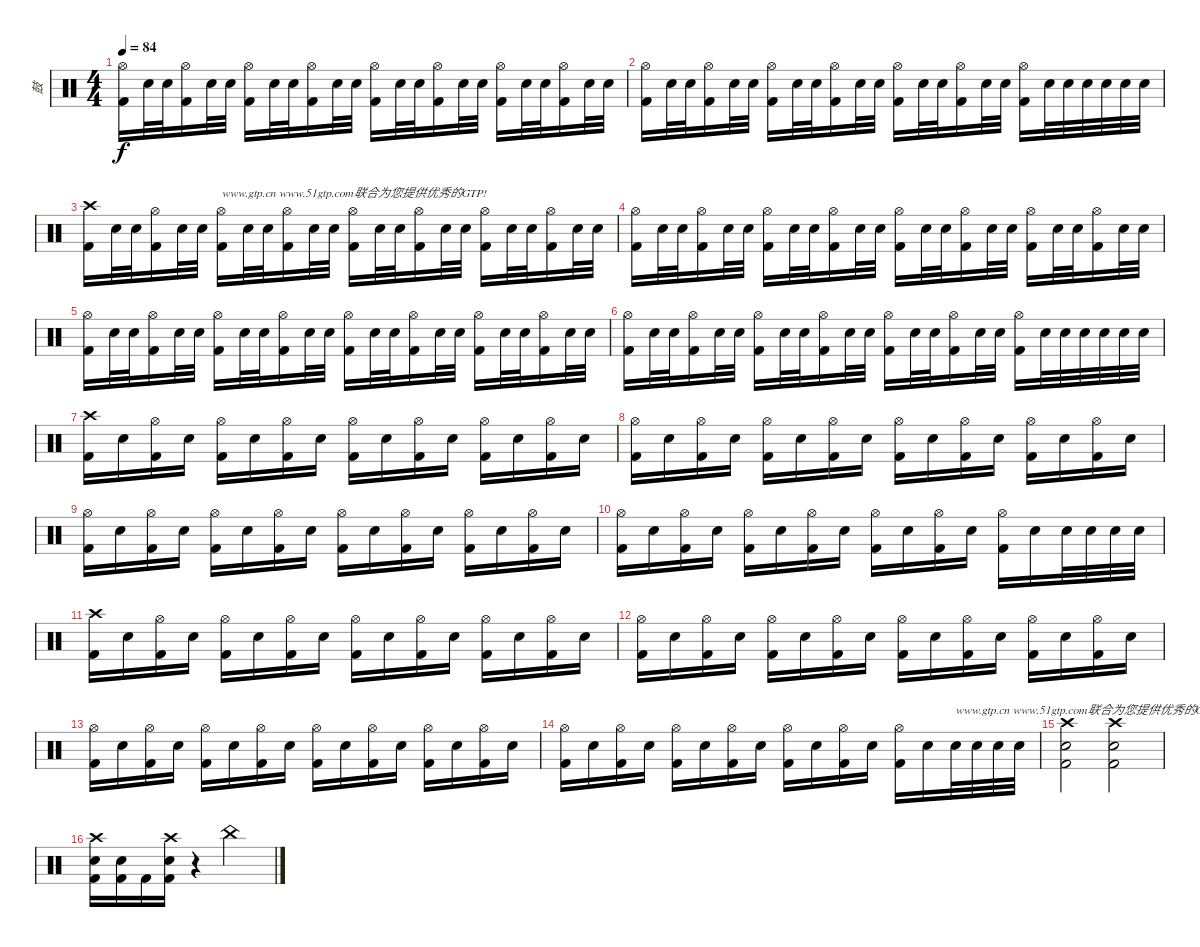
\track ("鼓" "鼓") {instrument percussion}
\staff {score}
\articulation defaults
\ts (4 4)
\tempo 84
\clef neutral
\ks c
("Hi-Hat (open)" "Kick (hit) 2").16{dy f} "Electric Snare (hit)".32 "Electric Snare (hit)".32 ("Hi-Hat (open)" "Kick (hit) 2").16 "Electric Snare (hit)".32 "Electric Snare (hit)".32 ("Hi-Hat (open)" "Kick (hit) 2").16 "Electric Snare (hit)".32 "Electric Snare (hit)".32 ("Hi-Hat (open)" "Kick (hit) 2").16 "Electric Snare (hit)".32 "Electric Snare (hit)".32 ("Hi-Hat (open)" "Kick (hit) 2").16 "Electric Snare (hit)".32 "Electric Snare (hit)".32 ("Hi-Hat (open)" "Kick (hit) 2").16 "Electric Snare (hit)".32 "Electric Snare (hit)".32 ("Hi-Hat (open)" "Kick (hit) 2").16 "Electric Snare (hit)".32 "Electric Snare (hit)".32 ("Hi-Hat (open)" "Kick (hit) 2").16 "Electric Snare (hit)".32 "Electric Snare (hit)".32 |
("Hi-Hat (open)" "Kick (hit) 2").16 "Electric Snare (hit)".32 "Electric Snare (hit)".32 ("Hi-Hat (open)" "Kick (hit) 2").16 "Electric Snare (hit)".32 "Electric Snare (hit)".32 ("Hi-Hat (open)" "Kick (hit) 2").16 "Electric Snare (hit)".32 "Electric Snare (hit)".32 ("Hi-Hat (open)" "Kick (hit) 2").16 "Electric Snare (hit)".32 "Electric Snare (hit)".32 ("Hi-Hat (open)" "Kick (hit) 2").16 "Electric Snare (hit)".32 "Electric Snare (hit)".32 ("Hi-Hat (open)" "Kick (hit) 2").16 "Electric Snare (hit)".32 "Electric Snare (hit)".32 ("Hi-Hat (open)" "Kick (hit) 2").16 "Electric Snare (hit)".32 "Electric Snare (hit)".32 "Electric Snare (hit)".32 "Electric Snare (hit)".32 "Electric Snare (hit)".32 "Electric Snare (hit)".32 |
("Crash high (hit)" "Kick (hit) 2").16 "Electric Snare (hit)".32 "Electric Snare (hit)".32 ("Hi-Hat (open)" "Kick (hit) 2").16 "Electric Snare (hit)".32 "Electric Snare (hit)".32 ("Hi-Hat (open)" "Kick (hit) 2").16{txt "www.gtp.cn www.51gtp.com联合为您提供优秀的GTP!"} "Electric Snare (hit)".32 "Electric Snare (hit)".32 ("Hi-Hat (open)" "Kick (hit) 2").16 "Electric Snare (hit)".32 "Electric Snare (hit)".32 ("Hi-Hat (open)" "Kick (hit) 2").16 "Electric Snare (hit)".32 "Electric Snare (hit)".32 ("Hi-Hat (open)" "Kick (hit) 2").16 "Electric Snare (hit)".32 "Electric Snare (hit)".32 ("Hi-Hat (open)" "Kick (hit) 2").16 "Electric Snare (hit)".32 "Electric Snare (hit)".32 ("Hi-Hat (open)" "Kick (hit) 2").16 "Electric Snare (hit)".32 "Electric Snare (hit)".32 |
("Hi-Hat (open)" "Kick (hit) 2").16 "Electric Snare (hit)".32 "Electric Snare (hit)".32 ("Hi-Hat (open)" "Kick (hit) 2").16 "Electric Snare (hit)".32 "Electric Snare (hit)".32 ("Hi-Hat (open)" "Kick (hit) 2").16 "Electric Snare (hit)".32 "Electric Snare (hit)".32 ("Hi-Hat (open)" "Kick (hit) 2").16 "Electric Snare (hit)".32 "Electric Snare (hit)".32 ("Hi-Hat (open)" "Kick (hit) 2").16 "Electric Snare (hit)".32 "Electric Snare (hit)".32 ("Hi-Hat (open)" "Kick (hit) 2").16 "Electric Snare (hit)".32 "Electric Snare (hit)".32 ("Hi-Hat (open)" "Kick (hit) 2").16 "Electric Snare (hit)".32 "Electric Snare (hit)".32 ("Hi-Hat (open)" "Kick (hit) 2").16 "Electric Snare (hit)".32 "Electric Snare (hit)".32 |
("Hi-Hat (open)" "Kick (hit) 2").16 "Electric Snare (hit)".32 "Electric Snare (hit)".32 ("Hi-Hat (open)" "Kick (hit) 2").16 "Electric Snare (hit)".32 "Electric Snare (hit)".32 ("Hi-Hat (open)" "Kick (hit) 2").16 "Electric Snare (hit)".32 "Electric Snare (hit)".32 ("Hi-Hat (open)" "Kick (hit) 2").16 "Electric Snare (hit)".32 "Electric Snare (hit)".32 ("Hi-Hat (open)" "Kick (hit) 2").16 "Electric Snare (hit)".32 "Electric Snare (hit)".32 ("Hi-Hat (open)" "Kick (hit) 2").16 "Electric Snare (hit)".32 "Electric Snare (hit)".32 ("Hi-Hat (open)" "Kick (hit) 2").16 "Electric Snare (hit)".32 "Electric Snare (hit)".32 ("Hi-Hat (open)" "Kick (hit) 2").16 "Electric Snare (hit)".32 "Electric Snare (hit)".32 |
("Hi-Hat (open)" "Kick (hit) 2").16 "Electric Snare (hit)".32 "Electric Snare (hit)".32 ("Hi-Hat (open)" "Kick (hit) 2").16 "Electric Snare (hit)".32 "Electric Snare (hit)".32 ("Hi-Hat (open)" "Kick (hit) 2").16 "Electric Snare (hit)".32 "Electric Snare (hit)".32 ("Hi-Hat (open)" "Kick (hit) 2").16 "Electric Snare (hit)".32 "Electric Snare (hit)".32 ("Hi-Hat (open)" "Kick (hit) 2").16 "Electric Snare (hit)".32 "Electric Snare (hit)".32 ("Hi-Hat (open)" "Kick (hit) 2").16 "Electric Snare (hit)".32 "Electric Snare (hit)".32 ("Hi-Hat (open)" "Kick (hit) 2").16 "Electric Snare (hit)".32 "Electric Snare (hit)".32 "Electric Snare (hit)".32 "Electric Snare (hit)".32 "Electric Snare (hit)".32 "Electric Snare (hit)".32 |
("Crash high (hit)" "Kick (hit) 2").16 "Electric Snare (hit)".16 ("Hi-Hat (open)" "Kick (hit) 2").16 "Electric Snare (hit)".16 ("Hi-Hat (open)" "Kick (hit) 2").16 "Electric Snare (hit)".16 ("Hi-Hat (open)" "Kick (hit) 2").16 "Electric Snare (hit)".16 ("Hi-Hat (open)" "Kick (hit) 2").16 "Electric Snare (hit)".16 ("Hi-Hat (open)" "Kick (hit) 2").16 "Electric Snare (hit)".16 ("Hi-Hat (open)" "Kick (hit) 2").16 "Electric Snare (hit)".16 ("Hi-Hat (open)" "Kick (hit) 2").16 "Electric Snare (hit)".16 |
("Hi-Hat (open)" "Kick (hit) 2").16 "Electric Snare (hit)".16 ("Hi-Hat (open)" "Kick (hit) 2").16 "Electric Snare (hit)".16 ("Hi-Hat (open)" "Kick (hit) 2").16 "Electric Snare (hit)".16 ("Hi-Hat (open)" "Kick (hit) 2").16 "Electric Snare (hit)".16 ("Hi-Hat (open)" "Kick (hit) 2").16 "Electric Snare (hit)".16 ("Hi-Hat (open)" "Kick (hit) 2").16 "Electric Snare (hit)".16 ("Hi-Hat (open)" "Kick (hit) 2").16 "Electric Snare (hit)".16 ("Hi-Hat (open)" "Kick (hit) 2").16 "Electric Snare (hit)".16 |
("Hi-Hat (open)" "Kick (hit) 2").16 "Electric Snare (hit)".16 ("Hi-Hat (open)" "Kick (hit) 2").16 "Electric Snare (hit)".16 ("Hi-Hat (open)" "Kick (hit) 2").16 "Electric Snare (hit)".16 ("Hi-Hat (open)" "Kick (hit) 2").16 "Electric Snare (hit)".16 ("Hi-Hat (open)" "Kick (hit) 2").16 "Electric Snare (hit)".16 ("Hi-Hat (open)" "Kick (hit) 2").16 "Electric Snare (hit)".16 ("Hi-Hat (open)" "Kick (hit) 2").16 "Electric Snare (hit)".16 ("Hi-Hat (open)" "Kick (hit) 2").16 "Electric Snare (hit)".16 |
("Hi-Hat (open)" "Kick (hit) 2").16 "Electric Snare (hit)".16 ("Hi-Hat (open)" "Kick (hit) 2").16 "Electric Snare (hit)".16 ("Hi-Hat (open)" "Kick (hit) 2").16 "Electric Snare (hit)".16 ("Hi-Hat (open)" "Kick (hit) 2").16 "Electric Snare (hit)".16 ("Hi-Hat (open)" "Kick (hit) 2").16 "Electric Snare (hit)".16 ("Hi-Hat (open)" "Kick (hit) 2").16 "Electric Snare (hit)".16 ("Hi-Hat (open)" "Kick (hit) 2").16 "Electric Snare (hit)".16 "Electric Snare (hit)".32 "Electric Snare (hit)".32 "Electric Snare (hit)".32 "Electric Snare (hit)".32 |
("Crash high (hit)" "Kick (hit) 2").16 "Electric Snare (hit)".16 ("Hi-Hat (open)" "Kick (hit) 2").16 "Electric Snare (hit)".16 ("Hi-Hat (open)" "Kick (hit) 2").16 "Electric Snare (hit)".16 ("Hi-Hat (open)" "Kick (hit) 2").16 "Electric Snare (hit)".16 ("Hi-Hat (open)" "Kick (hit) 2").16 "Electric Snare (hit)".16 ("Hi-Hat (open)" "Kick (hit) 2").16 "Electric Snare (hit)".16 ("Hi-Hat (open)" "Kick (hit) 2").16 "Electric Snare (hit)".16 ("Hi-Hat (open)" "Kick (hit) 2").16 "Electric Snare (hit)".16 |
("Hi-Hat (open)" "Kick (hit) 2").16 "Electric Snare (hit)".16 ("Hi-Hat (open)" "Kick (hit) 2").16 "Electric Snare (hit)".16 ("Hi-Hat (open)" "Kick (hit) 2").16 "Electric Snare (hit)".16 ("Hi-Hat (open)" "Kick (hit) 2").16 "Electric Snare (hit)".16 ("Hi-Hat (open)" "Kick (hit) 2").16 "Electric Snare (hit)".16 ("Hi-Hat (open)" "Kick (hit) 2").16 "Electric Snare (hit)".16 ("Hi-Hat (open)" "Kick (hit) 2").16 "Electric Snare (hit)".16 ("Hi-Hat (open)" "Kick (hit) 2").16 "Electric Snare (hit)".16 |
("Hi-Hat (open)" "Kick (hit) 2").16 "Electric Snare (hit)".16 ("Hi-Hat (open)" "Kick (hit) 2").16 "Electric Snare (hit)".16 ("Hi-Hat (open)" "Kick (hit) 2").16 "Electric Snare (hit)".16 ("Hi-Hat (open)" "Kick (hit) 2").16 "Electric Snare (hit)".16 ("Hi-Hat (open)" "Kick (hit) 2").16 "Electric Snare (hit)".16 ("Hi-Hat (open)" "Kick (hit) 2").16 "Electric Snare (hit)".16 ("Hi-Hat (open)" "Kick (hit) 2").16 "Electric Snare (hit)".16 ("Hi-Hat (open)" "Kick (hit) 2").16 "Electric Snare (hit)".16 |
("Hi-Hat (open)" "Kick (hit) 2").16 "Electric Snare (hit)".16 ("Hi-Hat (open)" "Kick (hit) 2").16 "Electric Snare (hit)".16 ("Hi-Hat (open)" "Kick (hit) 2").16 "Electric Snare (hit)".16 ("Hi-Hat (open)" "Kick (hit) 2").16 "Electric Snare (hit)".16 ("Hi-Hat (open)" "Kick (hit) 2").16 "Electric Snare (hit)".16 ("Hi-Hat (open)" "Kick (hit) 2").16 "Electric Snare (hit)".16 ("Hi-Hat (open)" "Kick (hit) 2").16 "Electric Snare (hit)".16 "Electric Snare (hit)".32{txt "www.gtp.cn www.51gtp.com联合为您提供优秀的GTP!"} "Electric Snare (hit)".32 "Electric Snare (hit)".32 "Electric Snare (hit)".32 |
("Crash high (hit)" "Electric Snare (hit)" "Kick (hit) 2").2 ("Crash high (hit)" "Electric Snare (hit)" "Kick (hit) 2").2 |
("Crash high (hit)" "Electric Snare (hit)" "Kick (hit) 2").16 ("Electric Snare (hit)" "Kick (hit) 2").16 "Kick (hit) 2".16 ("Crash high (hit)" "Electric Snare (hit)" "Kick (hit) 2").16 r.4 "China (hit)".2
